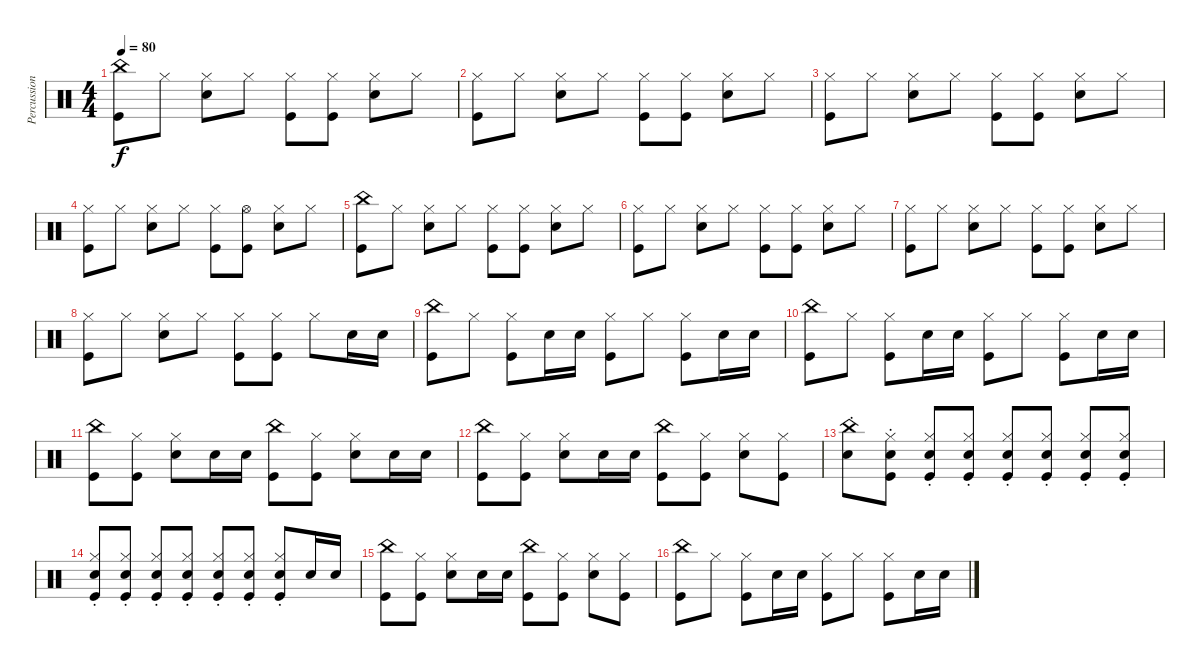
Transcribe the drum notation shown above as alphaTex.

\track ("Percussions" "Percussion") {instrument percussion}
\staff {score}
\articulation defaults
\ts (4 4)
\tempo 80
\clef neutral
\ks c
("China (hit)" "Kick (hit)").8{dy f} "Hi-Hat (closed)".8 ("Hi-Hat (closed)" "Snare (hit) 2").8 "Hi-Hat (closed)".8 ("Hi-Hat (closed)" "Kick (hit)").8 ("Hi-Hat (closed)" "Kick (hit)").8 ("Hi-Hat (closed)" "Snare (hit) 2").8 "Hi-Hat (closed)".8 |
("Hi-Hat (closed)" "Kick (hit)").8 "Hi-Hat (closed)".8 ("Hi-Hat (closed)" "Snare (hit) 2").8 "Hi-Hat (closed)".8 ("Hi-Hat (closed)" "Kick (hit)").8 ("Hi-Hat (closed)" "Kick (hit)").8 ("Hi-Hat (closed)" "Snare (hit) 2").8 "Hi-Hat (closed)".8 |
("Hi-Hat (closed)" "Kick (hit)").8 "Hi-Hat (closed)".8 ("Hi-Hat (closed)" "Snare (hit) 2").8 "Hi-Hat (closed)".8 ("Hi-Hat (closed)" "Kick (hit)").8 ("Hi-Hat (closed)" "Kick (hit)").8 ("Hi-Hat (closed)" "Snare (hit) 2").8 "Hi-Hat (closed)".8 |
("Hi-Hat (closed)" "Kick (hit)").8 "Hi-Hat (closed)".8 ("Hi-Hat (closed)" "Snare (hit) 2").8 "Hi-Hat (closed)".8 ("Hi-Hat (closed)" "Kick (hit)").8 ("Hi-Hat (open)" "Kick (hit)").8 ("Hi-Hat (closed)" "Snare (hit) 2").8 "Hi-Hat (closed)".8 |
("China (hit)" "Kick (hit)").8 "Hi-Hat (closed)".8 ("Hi-Hat (closed)" "Snare (hit) 2").8 "Hi-Hat (closed)".8 ("Hi-Hat (closed)" "Kick (hit)").8 ("Hi-Hat (closed)" "Kick (hit)").8 ("Hi-Hat (closed)" "Snare (hit) 2").8 "Hi-Hat (closed)".8 |
("Hi-Hat (closed)" "Kick (hit)").8 "Hi-Hat (closed)".8 ("Hi-Hat (closed)" "Snare (hit) 2").8 "Hi-Hat (closed)".8 ("Hi-Hat (closed)" "Kick (hit)").8 ("Hi-Hat (closed)" "Kick (hit)").8 ("Hi-Hat (closed)" "Snare (hit) 2").8 "Hi-Hat (closed)".8 |
("Hi-Hat (closed)" "Kick (hit)").8 "Hi-Hat (closed)".8 ("Hi-Hat (closed)" "Snare (hit) 2").8 "Hi-Hat (closed)".8 ("Hi-Hat (closed)" "Kick (hit)").8 ("Hi-Hat (closed)" "Kick (hit)").8 ("Hi-Hat (closed)" "Snare (hit) 2").8 "Hi-Hat (closed)".8 |
("Hi-Hat (closed)" "Kick (hit)").8 "Hi-Hat (closed)".8 ("Hi-Hat (closed)" "Snare (hit) 2").8 "Hi-Hat (closed)".8 ("Hi-Hat (closed)" "Kick (hit)").8 ("Hi-Hat (closed)" "Kick (hit)").8 "Hi-Hat (closed)".8 "Snare (hit) 2".16 "Snare (hit) 2".16 |
("China (hit)" "Kick (hit)").8 "Hi-Hat (closed)".8 ("Hi-Hat (closed)" "Kick (hit)").8 "Snare (hit) 2".16 "Snare (hit) 2".16 ("Hi-Hat (closed)" "Kick (hit)").8 "Hi-Hat (closed)".8 ("Hi-Hat (closed)" "Kick (hit)").8 "Snare (hit) 2".16 "Snare (hit) 2".16 |
("China (hit)" "Kick (hit)").8 "Hi-Hat (closed)".8 ("Hi-Hat (closed)" "Kick (hit)").8 "Snare (hit) 2".16 "Snare (hit) 2".16 ("Hi-Hat (closed)" "Kick (hit)").8 "Hi-Hat (closed)".8 ("Hi-Hat (closed)" "Kick (hit)").8 "Snare (hit) 2".16 "Snare (hit) 2".16 |
("China (hit)" "Kick (hit)").8 ("Hi-Hat (closed)" "Kick (hit)").8 ("Hi-Hat (closed)" "Snare (hit) 2").8 "Snare (hit) 2".16 "Snare (hit) 2".16 ("China (hit)" "Kick (hit)").8 ("Hi-Hat (closed)" "Kick (hit)").8 ("Hi-Hat (closed)" "Snare (hit) 2").8 "Snare (hit) 2".16 "Snare (hit) 2".16 |
("China (hit)" "Kick (hit)").8 ("Hi-Hat (closed)" "Kick (hit)").8 ("Hi-Hat (closed)" "Snare (hit) 2").8 "Snare (hit) 2".16 "Snare (hit) 2".16 ("China (hit)" "Kick (hit)").8 ("Hi-Hat (closed)" "Kick (hit)").8 ("Hi-Hat (closed)" "Snare (hit) 2").8 ("Hi-Hat (closed)" "Kick (hit)").8 |
("China (hit)"{st} "Snare (hit) 2"{st}).8 ("Hi-Hat (closed)"{st} "Snare (hit) 2"{st} "Kick (hit)"{st}).8 ("Hi-Hat (closed)"{st} "Snare (hit) 2"{st} "Kick (hit)"{st}).8 ("Hi-Hat (closed)"{st} "Snare (hit) 2"{st} "Kick (hit)"{st}).8 ("Hi-Hat (closed)"{st} "Snare (hit) 2"{st} "Kick (hit)"{st}).8 ("Hi-Hat (closed)"{st} "Snare (hit) 2"{st} "Kick (hit)"{st}).8 ("Hi-Hat (closed)"{st} "Snare (hit) 2"{st} "Kick (hit)"{st}).8 ("Hi-Hat (closed)"{st} "Snare (hit) 2"{st} "Kick (hit)"{st}).8 |
("Hi-Hat (closed)"{st} "Snare (hit) 2"{st} "Kick (hit)").8 ("Hi-Hat (closed)"{st} "Snare (hit) 2"{st} "Kick (hit)"{st}).8 ("Hi-Hat (closed)"{st} "Snare (hit) 2"{st} "Kick (hit)"{st}).8 ("Hi-Hat (closed)"{st} "Snare (hit) 2"{st} "Kick (hit)"{st}).8 ("Hi-Hat (closed)"{st} "Snare (hit) 2"{st} "Kick (hit)"{st}).8 ("Hi-Hat (closed)"{st} "Snare (hit) 2"{st} "Kick (hit)"{st}).8 ("Hi-Hat (closed)"{st} "Snare (hit) 2"{st} "Kick (hit)"{st}).8 "Snare (hit) 2".16 "Snare (hit) 2".16 |
("China (hit)" "Kick (hit)").8 ("Hi-Hat (closed)" "Kick (hit)").8 ("Hi-Hat (closed)" "Snare (hit) 2").8 "Snare (hit) 2".16 "Snare (hit) 2".16 ("China (hit)" "Kick (hit)").8 ("Hi-Hat (closed)" "Kick (hit)").8 ("Hi-Hat (closed)" "Snare (hit) 2").8 ("Hi-Hat (closed)" "Kick (hit)").8 |
("China (hit)" "Kick (hit)").8 "Hi-Hat (closed)".8 ("Hi-Hat (closed)" "Kick (hit)").8 "Snare (hit) 2".16 "Snare (hit) 2".16 ("Hi-Hat (closed)" "Kick (hit)").8 "Hi-Hat (closed)".8 ("Hi-Hat (closed)" "Kick (hit)").8 "Snare (hit) 2".16 "Snare (hit) 2".16
